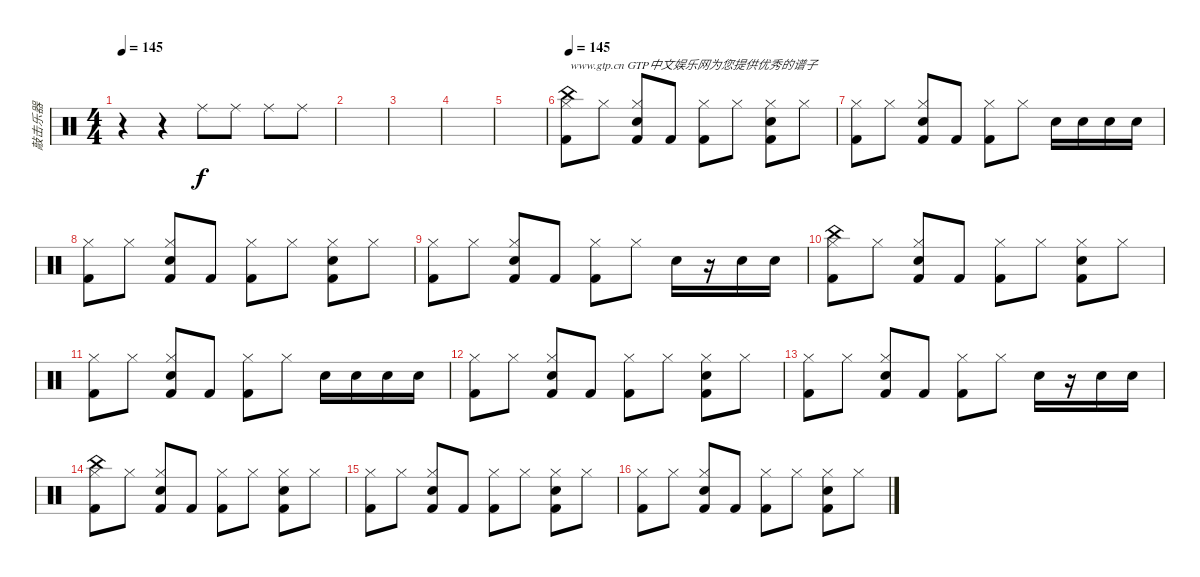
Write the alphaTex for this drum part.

\track ("敲击乐器" "敲击乐器") {instrument percussion}
\staff {score}
\articulation defaults
\ts (4 4)
\tempo 145
\tempo 72
\tempo 145
\clef neutral
\ks c
r.4{dy f} r.4 "Ride (middle)".8 "Ride (middle)".8 "Ride (middle)".8 "Ride (middle)".8 |
|
|
|
|
\tempo 145
("Kick (hit) 2" "Hi-Hat (closed)" "China (hit)").8{txt "www.gtp.cn GTP中文娱乐网为您提供优秀的谱子"} "Hi-Hat (closed)".8 ("Electric Snare (hit)" "Kick (hit) 2" "Hi-Hat (closed)").8 "Kick (hit) 2".8 ("Kick (hit) 2" "Hi-Hat (closed)").8 "Hi-Hat (closed)".8 ("Electric Snare (hit)" "Kick (hit) 2" "Hi-Hat (closed)").8 "Hi-Hat (closed)".8 |
("Kick (hit) 2" "Hi-Hat (closed)").8 "Hi-Hat (closed)".8 ("Electric Snare (hit)" "Kick (hit) 2" "Hi-Hat (closed)").8 "Kick (hit) 2".8 ("Kick (hit) 2" "Hi-Hat (closed)").8 "Hi-Hat (closed)".8 "Electric Snare (hit)".16 "Electric Snare (hit)".16 "Electric Snare (hit)".16 "Electric Snare (hit)".16 |
("Kick (hit) 2" "Hi-Hat (closed)").8 "Hi-Hat (closed)".8 ("Electric Snare (hit)" "Kick (hit) 2" "Hi-Hat (closed)").8 "Kick (hit) 2".8 ("Kick (hit) 2" "Hi-Hat (closed)").8 "Hi-Hat (closed)".8 ("Electric Snare (hit)" "Kick (hit) 2" "Hi-Hat (closed)").8 "Hi-Hat (closed)".8 |
("Kick (hit) 2" "Hi-Hat (closed)").8 "Hi-Hat (closed)".8 ("Electric Snare (hit)" "Kick (hit) 2" "Hi-Hat (closed)").8 "Kick (hit) 2".8 ("Kick (hit) 2" "Hi-Hat (closed)").8 "Hi-Hat (closed)".8 "Electric Snare (hit)".16 r.16 "Electric Snare (hit)".16 "Electric Snare (hit)".16 |
("Kick (hit) 2" "Hi-Hat (closed)" "China (hit)").8 "Hi-Hat (closed)".8 ("Electric Snare (hit)" "Kick (hit) 2" "Hi-Hat (closed)").8 "Kick (hit) 2".8 ("Kick (hit) 2" "Hi-Hat (closed)").8 "Hi-Hat (closed)".8 ("Electric Snare (hit)" "Kick (hit) 2" "Hi-Hat (closed)").8 "Hi-Hat (closed)".8 |
("Kick (hit) 2" "Hi-Hat (closed)").8 "Hi-Hat (closed)".8 ("Electric Snare (hit)" "Kick (hit) 2" "Hi-Hat (closed)").8 "Kick (hit) 2".8 ("Kick (hit) 2" "Hi-Hat (closed)").8 "Hi-Hat (closed)".8 "Electric Snare (hit)".16 "Electric Snare (hit)".16 "Electric Snare (hit)".16 "Electric Snare (hit)".16 |
("Kick (hit) 2" "Hi-Hat (closed)").8 "Hi-Hat (closed)".8 ("Electric Snare (hit)" "Kick (hit) 2" "Hi-Hat (closed)").8 "Kick (hit) 2".8 ("Kick (hit) 2" "Hi-Hat (closed)").8 "Hi-Hat (closed)".8 ("Electric Snare (hit)" "Kick (hit) 2" "Hi-Hat (closed)").8 "Hi-Hat (closed)".8 |
("Kick (hit) 2" "Hi-Hat (closed)").8 "Hi-Hat (closed)".8 ("Electric Snare (hit)" "Kick (hit) 2" "Hi-Hat (closed)").8 "Kick (hit) 2".8 ("Kick (hit) 2" "Hi-Hat (closed)").8 "Hi-Hat (closed)".8 "Electric Snare (hit)".16 r.16 "Electric Snare (hit)".16 "Electric Snare (hit)".16 |
("Kick (hit) 2" "Hi-Hat (closed)" "China (hit)").8 "Hi-Hat (closed)".8 ("Electric Snare (hit)" "Kick (hit) 2" "Hi-Hat (closed)").8 "Kick (hit) 2".8 ("Kick (hit) 2" "Hi-Hat (closed)").8 "Hi-Hat (closed)".8 ("Electric Snare (hit)" "Kick (hit) 2" "Hi-Hat (closed)").8 "Hi-Hat (closed)".8 |
("Kick (hit) 2" "Hi-Hat (closed)").8 "Hi-Hat (closed)".8 ("Electric Snare (hit)" "Kick (hit) 2" "Hi-Hat (closed)").8 "Kick (hit) 2".8 ("Kick (hit) 2" "Hi-Hat (closed)").8 "Hi-Hat (closed)".8 ("Electric Snare (hit)" "Kick (hit) 2" "Hi-Hat (closed)").8 "Hi-Hat (closed)".8 |
("Kick (hit) 2" "Hi-Hat (closed)").8 "Hi-Hat (closed)".8 ("Electric Snare (hit)" "Kick (hit) 2" "Hi-Hat (closed)").8 "Kick (hit) 2".8 ("Kick (hit) 2" "Hi-Hat (closed)").8 "Hi-Hat (closed)".8 ("Electric Snare (hit)" "Kick (hit) 2" "Hi-Hat (closed)").8 "Hi-Hat (closed)".8
